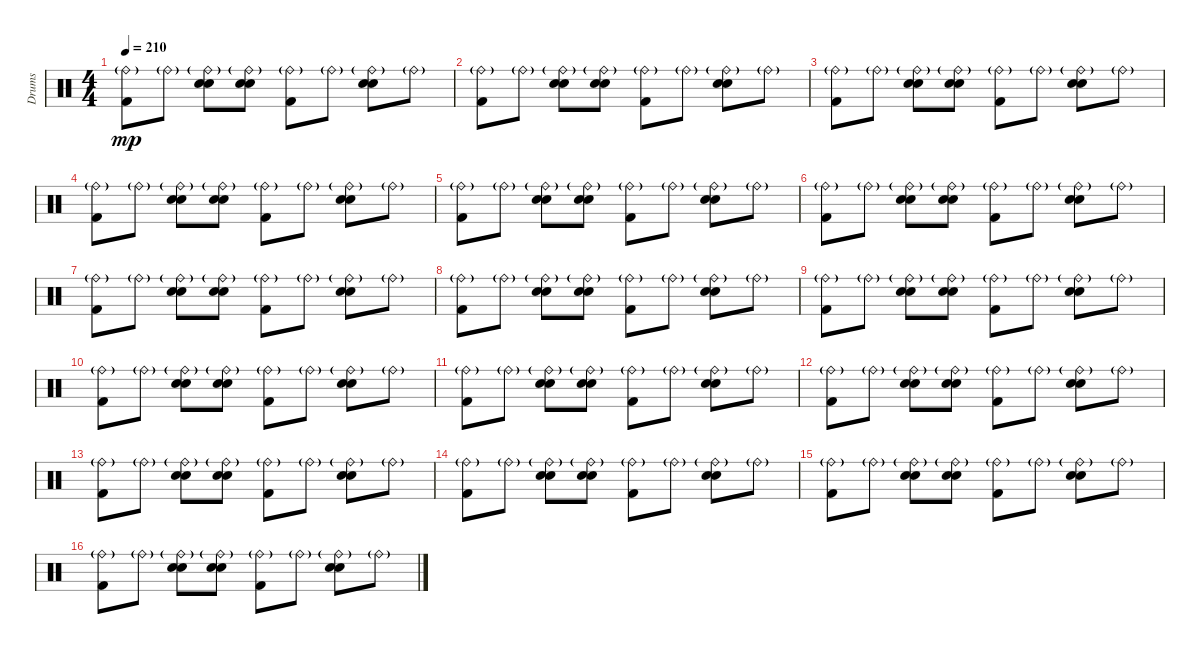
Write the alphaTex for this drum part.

\track ("Drums" "Drums") {instrument percussion}
\staff {score}
\articulation defaults
\ts (4 4)
\tempo 210
\clef neutral
\ks c
("Ride (bell)"{g} "Kick (hit) 2").8{dy mp} "Ride (bell)"{g}.8 ("Ride (bell)"{g} "Hand Clap (hit)" "Electric Snare (hit)").8 ("Ride (bell)"{g} "Hand Clap (hit)" "Electric Snare (hit)").8 ("Ride (bell)"{g} "Kick (hit) 2").8 "Ride (bell)"{g}.8 ("Ride (bell)"{g} "Hand Clap (hit)" "Electric Snare (hit)").8 "Ride (bell)"{g}.8 |
("Ride (bell)"{g} "Kick (hit) 2").8 "Ride (bell)"{g}.8 ("Ride (bell)"{g} "Hand Clap (hit)" "Electric Snare (hit)").8 ("Ride (bell)"{g} "Hand Clap (hit)" "Electric Snare (hit)").8 ("Ride (bell)"{g} "Kick (hit) 2").8 "Ride (bell)"{g}.8 ("Ride (bell)"{g} "Hand Clap (hit)" "Electric Snare (hit)").8 "Ride (bell)"{g}.8 |
("Ride (bell)"{g} "Kick (hit) 2").8 "Ride (bell)"{g}.8 ("Ride (bell)"{g} "Hand Clap (hit)" "Electric Snare (hit)").8 ("Ride (bell)"{g} "Hand Clap (hit)" "Electric Snare (hit)").8 ("Ride (bell)"{g} "Kick (hit) 2").8 "Ride (bell)"{g}.8 ("Ride (bell)"{g} "Hand Clap (hit)" "Electric Snare (hit)").8 "Ride (bell)"{g}.8 |
("Ride (bell)"{g} "Kick (hit) 2").8 "Ride (bell)"{g}.8 ("Ride (bell)"{g} "Hand Clap (hit)" "Electric Snare (hit)").8 ("Ride (bell)"{g} "Hand Clap (hit)" "Electric Snare (hit)").8 ("Ride (bell)"{g} "Kick (hit) 2").8 "Ride (bell)"{g}.8 ("Ride (bell)"{g} "Hand Clap (hit)" "Electric Snare (hit)").8 "Ride (bell)"{g}.8 |
("Ride (bell)"{g} "Kick (hit) 2").8 "Ride (bell)"{g}.8 ("Ride (bell)"{g} "Hand Clap (hit)" "Electric Snare (hit)").8 ("Ride (bell)"{g} "Hand Clap (hit)" "Electric Snare (hit)").8 ("Ride (bell)"{g} "Kick (hit) 2").8 "Ride (bell)"{g}.8 ("Ride (bell)"{g} "Hand Clap (hit)" "Electric Snare (hit)").8 "Ride (bell)"{g}.8 |
("Ride (bell)"{g} "Kick (hit) 2").8 "Ride (bell)"{g}.8 ("Ride (bell)"{g} "Hand Clap (hit)" "Electric Snare (hit)").8 ("Ride (bell)"{g} "Hand Clap (hit)" "Electric Snare (hit)").8 ("Ride (bell)"{g} "Kick (hit) 2").8 "Ride (bell)"{g}.8 ("Ride (bell)"{g} "Hand Clap (hit)" "Electric Snare (hit)").8 "Ride (bell)"{g}.8 |
("Ride (bell)"{g} "Kick (hit) 2").8 "Ride (bell)"{g}.8 ("Ride (bell)"{g} "Hand Clap (hit)" "Electric Snare (hit)").8 ("Ride (bell)"{g} "Hand Clap (hit)" "Electric Snare (hit)").8 ("Ride (bell)"{g} "Kick (hit) 2").8 "Ride (bell)"{g}.8 ("Ride (bell)"{g} "Hand Clap (hit)" "Electric Snare (hit)").8 "Ride (bell)"{g}.8 |
("Ride (bell)"{g} "Kick (hit) 2").8 "Ride (bell)"{g}.8 ("Ride (bell)"{g} "Hand Clap (hit)" "Electric Snare (hit)").8 ("Ride (bell)"{g} "Hand Clap (hit)" "Electric Snare (hit)").8 ("Ride (bell)"{g} "Kick (hit) 2").8 "Ride (bell)"{g}.8 ("Ride (bell)"{g} "Hand Clap (hit)" "Electric Snare (hit)").8 "Ride (bell)"{g}.8 |
("Ride (bell)"{g} "Kick (hit) 2").8 "Ride (bell)"{g}.8 ("Ride (bell)"{g} "Hand Clap (hit)" "Electric Snare (hit)").8 ("Ride (bell)"{g} "Hand Clap (hit)" "Electric Snare (hit)").8 ("Ride (bell)"{g} "Kick (hit) 2").8 "Ride (bell)"{g}.8 ("Ride (bell)"{g} "Hand Clap (hit)" "Electric Snare (hit)").8 "Ride (bell)"{g}.8 |
("Ride (bell)"{g} "Kick (hit) 2").8 "Ride (bell)"{g}.8 ("Ride (bell)"{g} "Hand Clap (hit)" "Electric Snare (hit)").8 ("Ride (bell)"{g} "Hand Clap (hit)" "Electric Snare (hit)").8 ("Ride (bell)"{g} "Kick (hit) 2").8 "Ride (bell)"{g}.8 ("Ride (bell)"{g} "Hand Clap (hit)" "Electric Snare (hit)").8 "Ride (bell)"{g}.8 |
("Ride (bell)"{g} "Kick (hit) 2").8 "Ride (bell)"{g}.8 ("Ride (bell)"{g} "Hand Clap (hit)" "Electric Snare (hit)").8 ("Ride (bell)"{g} "Hand Clap (hit)" "Electric Snare (hit)").8 ("Ride (bell)"{g} "Kick (hit) 2").8 "Ride (bell)"{g}.8 ("Ride (bell)"{g} "Hand Clap (hit)" "Electric Snare (hit)").8 "Ride (bell)"{g}.8 |
("Ride (bell)"{g} "Kick (hit) 2").8 "Ride (bell)"{g}.8 ("Ride (bell)"{g} "Hand Clap (hit)" "Electric Snare (hit)").8 ("Ride (bell)"{g} "Hand Clap (hit)" "Electric Snare (hit)").8 ("Ride (bell)"{g} "Kick (hit) 2").8 "Ride (bell)"{g}.8 ("Ride (bell)"{g} "Hand Clap (hit)" "Electric Snare (hit)").8 "Ride (bell)"{g}.8 |
("Ride (bell)"{g} "Kick (hit) 2").8 "Ride (bell)"{g}.8 ("Ride (bell)"{g} "Hand Clap (hit)" "Electric Snare (hit)").8 ("Ride (bell)"{g} "Hand Clap (hit)" "Electric Snare (hit)").8 ("Ride (bell)"{g} "Kick (hit) 2").8 "Ride (bell)"{g}.8 ("Ride (bell)"{g} "Hand Clap (hit)" "Electric Snare (hit)").8 "Ride (bell)"{g}.8 |
("Ride (bell)"{g} "Kick (hit) 2").8 "Ride (bell)"{g}.8 ("Ride (bell)"{g} "Hand Clap (hit)" "Electric Snare (hit)").8 ("Ride (bell)"{g} "Hand Clap (hit)" "Electric Snare (hit)").8 ("Ride (bell)"{g} "Kick (hit) 2").8 "Ride (bell)"{g}.8 ("Ride (bell)"{g} "Hand Clap (hit)" "Electric Snare (hit)").8 "Ride (bell)"{g}.8 |
("Ride (bell)"{g} "Kick (hit) 2").8 "Ride (bell)"{g}.8 ("Ride (bell)"{g} "Hand Clap (hit)" "Electric Snare (hit)").8 ("Ride (bell)"{g} "Hand Clap (hit)" "Electric Snare (hit)").8 ("Ride (bell)"{g} "Kick (hit) 2").8 "Ride (bell)"{g}.8 ("Ride (bell)"{g} "Hand Clap (hit)" "Electric Snare (hit)").8 "Ride (bell)"{g}.8 |
("Ride (bell)"{g} "Kick (hit) 2").8 "Ride (bell)"{g}.8 ("Ride (bell)"{g} "Hand Clap (hit)" "Electric Snare (hit)").8 ("Ride (bell)"{g} "Hand Clap (hit)" "Electric Snare (hit)").8 ("Ride (bell)"{g} "Kick (hit) 2").8 "Ride (bell)"{g}.8 ("Ride (bell)"{g} "Hand Clap (hit)" "Electric Snare (hit)").8 "Ride (bell)"{g}.8
